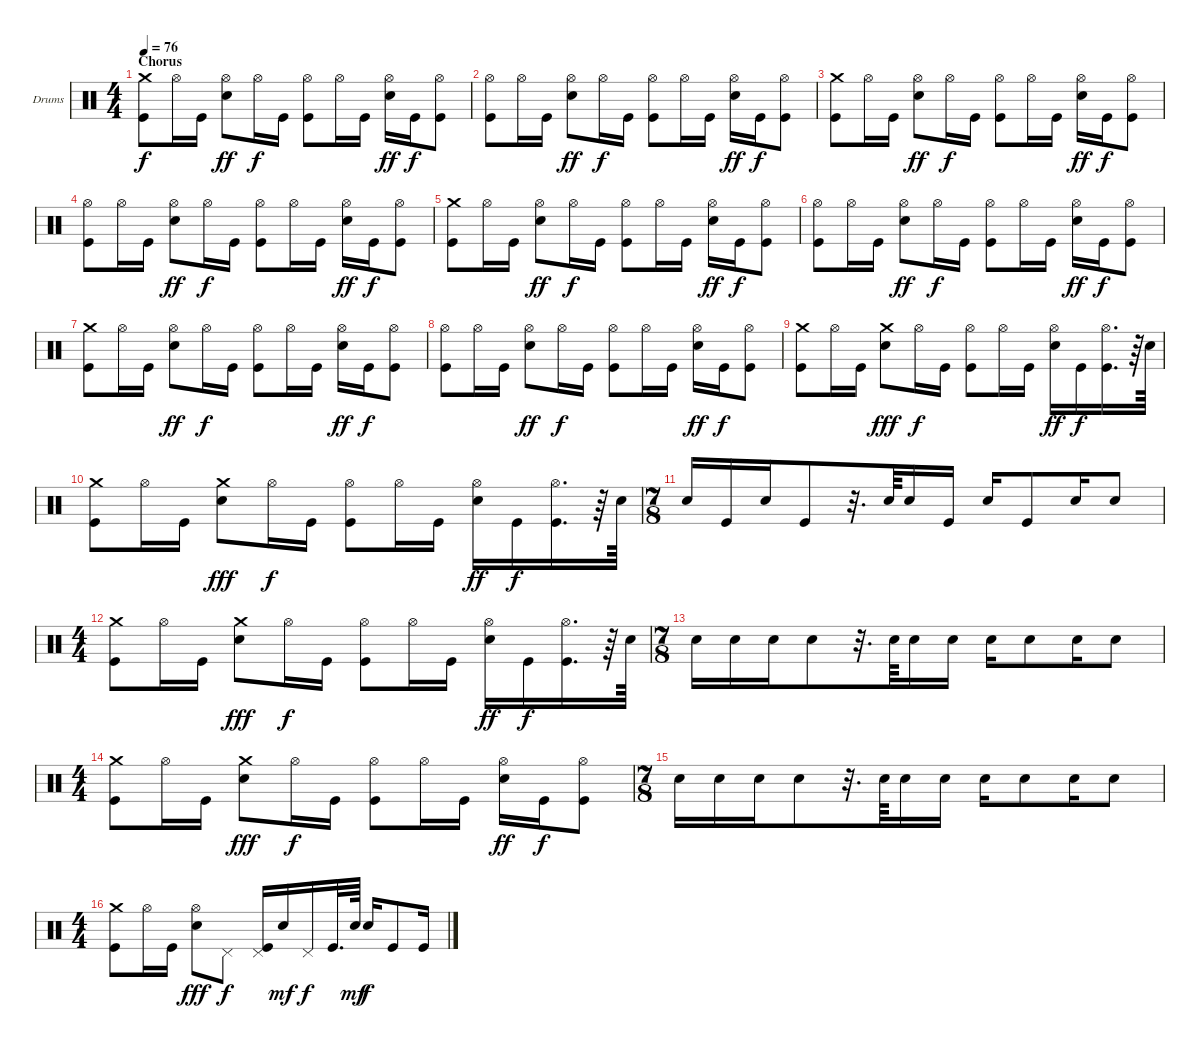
\defaultSystemsLayout 4
\bracketExtendMode nobrackets
\firstSystemTrackNameOrientation horizontal
\otherSystemsTrackNameOrientation horizontal
\track ("Dave Krusen" "Drums") {instrument percussion}
\staff {score}
\articulation defaults
\ts (4 4)
\section ("" "Chorus")
\tempo 76
\clef neutral
\ks c
("Crash medium (hit)" "Kick (hit)").8{dy f} "Hi-Hat (open)".16 "Kick (hit)".16 ("Snare (hit) 2" "Hi-Hat (open)").8{dy ff} "Hi-Hat (open)".16{dy f} "Kick (hit)".16 ("Kick (hit)" "Hi-Hat (open)").8 "Hi-Hat (open)".16 "Kick (hit)".16 ("Snare (hit) 2" "Hi-Hat (open)").16{dy ff} "Kick (hit)".16{dy f} ("Kick (hit)" "Hi-Hat (open)").8 |
("Hi-Hat (open)" "Kick (hit)").8 "Hi-Hat (open)".16 "Kick (hit)".16 ("Snare (hit) 2" "Hi-Hat (open)").8{dy ff} "Hi-Hat (open)".16{dy f} "Kick (hit)".16 ("Kick (hit)" "Hi-Hat (open)").8 "Hi-Hat (open)".16 "Kick (hit)".16 ("Snare (hit) 2" "Hi-Hat (open)").16{dy ff} "Kick (hit)".16{dy f} ("Kick (hit)" "Hi-Hat (open)").8 |
("Crash medium (hit)" "Kick (hit)").8 "Hi-Hat (open)".16 "Kick (hit)".16 ("Snare (hit) 2" "Hi-Hat (open)").8{dy ff} "Hi-Hat (open)".16{dy f} "Kick (hit)".16 ("Kick (hit)" "Hi-Hat (open)").8 "Hi-Hat (open)".16 "Kick (hit)".16 ("Snare (hit) 2" "Hi-Hat (open)").16{dy ff} "Kick (hit)".16{dy f} ("Kick (hit)" "Hi-Hat (open)").8 |
("Hi-Hat (open)" "Kick (hit)").8 "Hi-Hat (open)".16 "Kick (hit)".16 ("Snare (hit) 2" "Hi-Hat (open)").8{dy ff} "Hi-Hat (open)".16{dy f} "Kick (hit)".16 ("Kick (hit)" "Hi-Hat (open)").8 "Hi-Hat (open)".16 "Kick (hit)".16 ("Snare (hit) 2" "Hi-Hat (open)").16{dy ff} "Kick (hit)".16{dy f} ("Kick (hit)" "Hi-Hat (open)").8 |
("Crash medium (hit)" "Kick (hit)").8 "Hi-Hat (open)".16 "Kick (hit)".16 ("Snare (hit) 2" "Hi-Hat (open)").8{dy ff} "Hi-Hat (open)".16{dy f} "Kick (hit)".16 ("Kick (hit)" "Hi-Hat (open)").8 "Hi-Hat (open)".16 "Kick (hit)".16 ("Snare (hit) 2" "Hi-Hat (open)").16{dy ff} "Kick (hit)".16{dy f} ("Kick (hit)" "Hi-Hat (open)").8 |
("Hi-Hat (open)" "Kick (hit)").8 "Hi-Hat (open)".16 "Kick (hit)".16 ("Snare (hit) 2" "Hi-Hat (open)").8{dy ff} "Hi-Hat (open)".16{dy f} "Kick (hit)".16 ("Kick (hit)" "Hi-Hat (open)").8 "Hi-Hat (open)".16 "Kick (hit)".16 ("Snare (hit) 2" "Hi-Hat (open)").16{dy ff} "Kick (hit)".16{dy f} ("Kick (hit)" "Hi-Hat (open)").8 |
("Crash medium (hit)" "Kick (hit)").8 "Hi-Hat (open)".16 "Kick (hit)".16 ("Snare (hit) 2" "Hi-Hat (open)").8{dy ff} "Hi-Hat (open)".16{dy f} "Kick (hit)".16 ("Kick (hit)" "Hi-Hat (open)").8 "Hi-Hat (open)".16 "Kick (hit)".16 ("Snare (hit) 2" "Hi-Hat (open)").16{dy ff} "Kick (hit)".16{dy f} ("Kick (hit)" "Hi-Hat (open)").8 |
("Hi-Hat (open)" "Kick (hit)").8 "Hi-Hat (open)".16 "Kick (hit)".16 ("Snare (hit) 2" "Hi-Hat (open)").8{dy ff} "Hi-Hat (open)".16{dy f} "Kick (hit)".16 ("Kick (hit)" "Hi-Hat (open)").8 "Hi-Hat (open)".16 "Kick (hit)".16 ("Snare (hit) 2" "Hi-Hat (open)").16{dy ff} "Kick (hit)".16{dy f} ("Kick (hit)" "Hi-Hat (open)").8 |
("Crash medium (hit)" "Kick (hit)").8 "Hi-Hat (open)".16 "Kick (hit)".16 ("Crash medium (hit)" "Snare (hit) 2").8{dy fff} "Hi-Hat (open)".16{dy f} "Kick (hit)".16 ("Kick (hit)" "Hi-Hat (open)").8 "Hi-Hat (open)".16 "Kick (hit)".16 ("Snare (hit) 2" "Hi-Hat (open)").16{dy ff} "Kick (hit)".16{dy f} ("Kick (hit)" "Hi-Hat (open)").16{d} r.64 "Snare (hit) 2".64 |
("Crash medium (hit)" "Kick (hit)").8 "Hi-Hat (open)".16 "Kick (hit)".16 ("Crash medium (hit)" "Snare (hit) 2").8{dy fff} "Hi-Hat (open)".16{dy f} "Kick (hit)".16 ("Kick (hit)" "Hi-Hat (open)").8 "Hi-Hat (open)".16 "Kick (hit)".16 ("Snare (hit) 2" "Hi-Hat (open)").16{dy ff} "Kick (hit)".16{dy f} ("Kick (hit)" "Hi-Hat (open)").16{d} r.64 "Snare (hit) 2".64 |
\ts (7 8)
"Snare (hit) 2".16 "Kick (hit)".16 "Snare (hit) 2".16 "Kick (hit)".8 r.32{d} "Snare (hit) 2".64 "Snare (hit) 2".16 "Kick (hit)".16 "Snare (hit) 2".16 "Kick (hit)".8 "Snare (hit) 2".16 "Snare (hit) 2".8 |
\ts (4 4)
("Crash medium (hit)" "Kick (hit)").8 "Hi-Hat (open)".16 "Kick (hit)".16 ("Crash medium (hit)" "Snare (hit) 2").8{dy fff} "Hi-Hat (open)".16{dy f} "Kick (hit)".16 ("Kick (hit)" "Hi-Hat (open)").8 "Hi-Hat (open)".16 "Kick (hit)".16 ("Snare (hit) 2" "Hi-Hat (open)").16{dy ff} "Kick (hit)".16{dy f} ("Kick (hit)" "Hi-Hat (open)").16{d} r.64 "Snare (hit) 2".64 |
\ts (7 8)
"Snare (hit) 2".16 "Snare (hit) 2".16 "Snare (hit) 2".16 "Snare (hit) 2".8 r.32{d} "Snare (hit) 2".64 "Snare (hit) 2".16 "Snare (hit) 2".16 "Snare (hit) 2".16 "Snare (hit) 2".8 "Snare (hit) 2".16 "Snare (hit) 2".8 |
\ts (4 4)
("Crash medium (hit)" "Kick (hit)").8 "Hi-Hat (open)".16 "Kick (hit)".16 ("Crash medium (hit)" "Snare (hit) 2").8{dy fff} "Hi-Hat (open)".16{dy f} "Kick (hit)".16 ("Kick (hit)" "Hi-Hat (open)").8 "Hi-Hat (open)".16 "Kick (hit)".16 ("Snare (hit) 2" "Hi-Hat (open)").16{dy ff} "Kick (hit)".16{dy f} ("Kick (hit)" "Hi-Hat (open)").8 |
\ts (7 8)
"Snare (hit) 2".16 "Snare (hit) 2".16 "Snare (hit) 2".16 "Snare (hit) 2".8 r.32{d} "Snare (hit) 2".64 "Snare (hit) 2".16 "Snare (hit) 2".16 "Snare (hit) 2".16 "Snare (hit) 2".8 "Snare (hit) 2".16 "Snare (hit) 2".8 |
\ts (4 4)
("Crash medium (hit)" "Kick (hit)").8 "Hi-Hat (open)".16 "Kick (hit)".16 ("Hi-Hat (open)" "Snare (hit) 2").8{dy fff} "Pedal Hi-Hat (hit)".8{dy f} ("Kick (hit)" "Pedal Hi-Hat (hit)").16 "Snare (hit) 2".16{dy mf} "Pedal Hi-Hat (hit)".16{dy f} "Kick (hit)".32{d} "Snare (hit) 2".64{dy mf} "Snare (hit) 2".16{dy f} "Kick (hit)".8 "Kick (hit)".16
